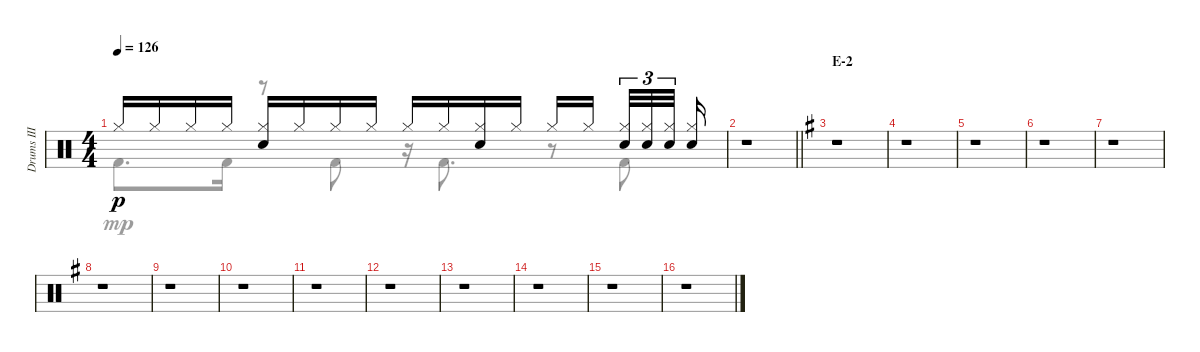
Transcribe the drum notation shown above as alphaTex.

\track ("Drums III" "Drums III") {instrument percussion}
\staff {score}
\articulation defaults
\voice
\ts (4 4)
\tempo 126
\clef neutral
\ks c "Hi-Hat (closed)".16{dy p} "Hi-Hat (closed)".16 "Hi-Hat (closed)".16 "Hi-Hat (closed)".16
("Hi-Hat (closed)" "Electric Snare (hit)").16 "Hi-Hat (closed)".16 "Hi-Hat (closed)".16 "Hi-Hat (closed)".16 "Hi-Hat (closed)".16 "Hi-Hat (closed)".16 ("Hi-Hat (closed)" "Electric Snare (hit)").16 "Hi-Hat (closed)".16 "Hi-Hat (closed)".16 "Hi-Hat (closed)".16{beam splitsecondary} ("Hi-Hat (closed)" "Electric Snare (hit)").32{tu (3 2)} ("Hi-Hat (closed)" "Electric Snare (hit)").32{tu (3 2)} ("Hi-Hat (closed)" "Electric Snare (hit)").32{tu (3 2) beam splitsecondary} ("Hi-Hat (closed)" "Electric Snare (hit)").16 |
\barLineRight lightlight
r.1 |
\section ("" "E-2")
\ks g
r.1 |
r.1 |
r.1 |
r.1 |
r.1 |
r.1 |
r.1 |
r.1 |
r.1 |
r.1 |
r.1 |
r.1 |
r.1 |
r.1
\voice
\clef neutral
\ottava regular
\simile none
\ks c "Kick (hit) 2".8{d dy mp} "Kick (hit) 2".16
r.8 "Kick (hit) 2".8 r.16 "Kick (hit) 2".8{d} r.8 "Kick (hit) 2".8 |
\barLineRight lightlight
r.1 |
\ks g
r.1 |
r.1 |
r.1 |
r.1 |
r.1 |
r.1 |
r.1 |
r.1 |
r.1 |
r.1 |
r.1 |
r.1 |
r.1 |
r.1
